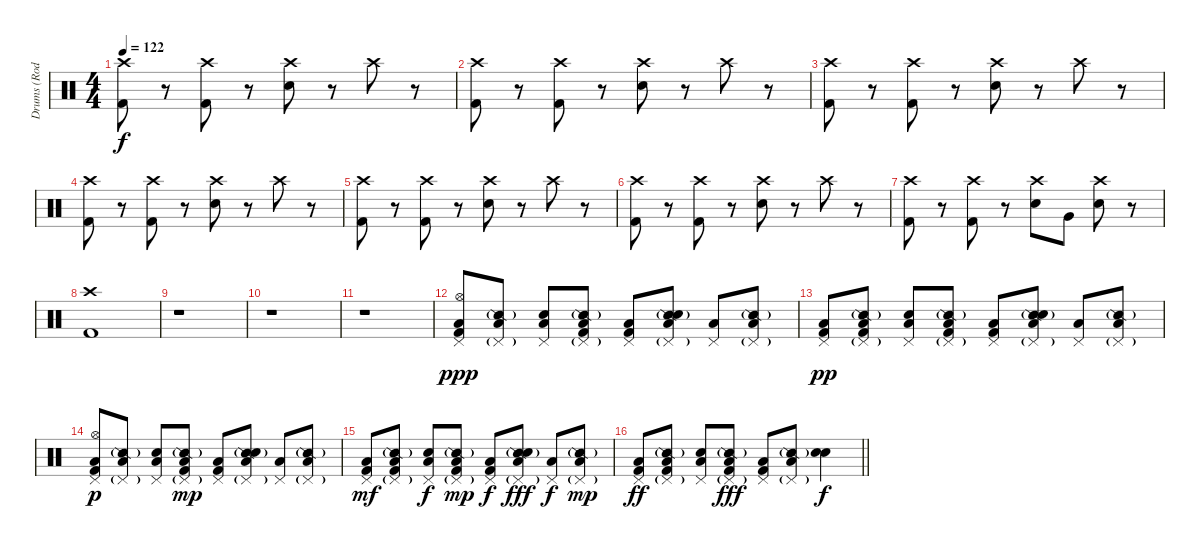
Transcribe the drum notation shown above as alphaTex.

\track ("Drums (Rod Bourdon)" "Drums (Rod") {instrument percussion}
\staff {score}
\articulation defaults
\ts (4 4)
\tempo 122
\clef neutral
\ks c
("Crash high (hit)" "Kick (hit) 2").8{dy f} r.8 ("Crash high (hit)" "Kick (hit) 2").8 r.8 ("Crash high (hit)" "Electric Snare (hit)").8 r.8 "Crash high (hit)".8 r.8 |
("Crash high (hit)" "Kick (hit) 2").8 r.8 ("Crash high (hit)" "Kick (hit) 2").8 r.8 ("Crash high (hit)" "Electric Snare (hit)").8 r.8 "Crash high (hit)".8 r.8 |
("Crash high (hit)" "Kick (hit) 2").8 r.8 ("Crash high (hit)" "Kick (hit) 2").8 r.8 ("Crash high (hit)" "Electric Snare (hit)").8 r.8 "Crash high (hit)".8 r.8 |
("Crash high (hit)" "Kick (hit) 2").8 r.8 ("Crash high (hit)" "Kick (hit) 2").8 r.8 ("Crash high (hit)" "Electric Snare (hit)").8 r.8 "Crash high (hit)".8 r.8 |
("Crash high (hit)" "Kick (hit) 2").8 r.8 ("Crash high (hit)" "Kick (hit) 2").8 r.8 ("Crash high (hit)" "Electric Snare (hit)").8 r.8 "Crash high (hit)".8 r.8 |
("Crash high (hit)" "Kick (hit) 2").8 r.8 ("Crash high (hit)" "Kick (hit) 2").8 r.8 ("Crash high (hit)" "Electric Snare (hit)").8 r.8 "Crash high (hit)".8 r.8 |
("Crash high (hit)" "Kick (hit) 2").8 r.8 ("Crash high (hit)" "Kick (hit) 2").8 r.8 ("Crash high (hit)" "Electric Snare (hit)").8 "Very Low Tom (hit)".8 ("Crash high (hit)" "Electric Snare (hit)").8 r.8 |
("Crash high (hit)" "Kick (hit) 2").1 |
r.1 |
r.1 |
r.1 |
("Pedal Hi-Hat (hit)" "Hi-Hat (open)" "Low Tom (hit)" "Kick (hit) 2").8{dy ppp} ("Snare (side stick) 2"{g} "Pedal Hi-Hat (hit)"{g} "Low Tom (hit)").8 ("Pedal Hi-Hat (hit)" "Low Tom (hit)" "Electric Snare (hit)").8 ("Snare (side stick) 2"{g} "Pedal Hi-Hat (hit)"{g} "Low Tom (hit)" "Kick (hit) 2").8 ("Pedal Hi-Hat (hit)" "Low Tom (hit)" "Kick (hit) 2").8 ("Snare (side stick) 2"{g} "Pedal Hi-Hat (hit)"{g} "Low Tom (hit)" "Electric Snare (hit)").8 ("Pedal Hi-Hat (hit)" "Low Tom (hit)").8 ("Snare (side stick) 2"{g} "Pedal Hi-Hat (hit)"{g} "Low Tom (hit)").8 |
("Pedal Hi-Hat (hit)" "Low Tom (hit)" "Kick (hit) 2").8{dy pp} ("Snare (side stick) 2"{g} "Pedal Hi-Hat (hit)"{g} "Low Tom (hit)" "Kick (hit) 2").8 ("Pedal Hi-Hat (hit)" "Low Tom (hit)" "Electric Snare (hit)").8 ("Snare (side stick) 2"{g} "Pedal Hi-Hat (hit)"{g} "Low Tom (hit)" "Kick (hit) 2").8 ("Pedal Hi-Hat (hit)" "Low Tom (hit)" "Kick (hit) 2").8 ("Snare (side stick) 2"{g} "Pedal Hi-Hat (hit)"{g} "Low Tom (hit)" "Electric Snare (hit)").8 ("Pedal Hi-Hat (hit)" "Low Tom (hit)").8 ("Snare (side stick) 2"{g} "Pedal Hi-Hat (hit)"{g} "Low Tom (hit)").8 |
("Pedal Hi-Hat (hit)" "Hi-Hat (open)" "Low Tom (hit)" "Kick (hit) 2").8{dy p} ("Snare (side stick) 2"{g} "Pedal Hi-Hat (hit)"{g} "Low Tom (hit)").8 ("Pedal Hi-Hat (hit)" "Low Tom (hit)" "Electric Snare (hit)").8 ("Snare (side stick) 2"{g} "Pedal Hi-Hat (hit)"{g} "Low Tom (hit)" "Kick (hit) 2").8{dy mp} ("Pedal Hi-Hat (hit)" "Low Tom (hit)" "Kick (hit) 2").8 ("Snare (side stick) 2"{g} "Pedal Hi-Hat (hit)"{g} "Low Tom (hit)" "Electric Snare (hit)").8 ("Pedal Hi-Hat (hit)" "Low Tom (hit)").8 ("Snare (side stick) 2"{g} "Pedal Hi-Hat (hit)"{g} "Low Tom (hit)").8 |
("Pedal Hi-Hat (hit)" "Low Tom (hit)" "Kick (hit) 2").8{dy mf} ("Snare (side stick) 2"{g} "Pedal Hi-Hat (hit)"{g} "Low Tom (hit)" "Kick (hit) 2").8 ("Pedal Hi-Hat (hit)" "Low Tom (hit)" "Electric Snare (hit)").8{dy f} ("Snare (side stick) 2"{g} "Pedal Hi-Hat (hit)"{g} "Low Tom (hit)" "Kick (hit) 2").8{dy mp} ("Pedal Hi-Hat (hit)" "Low Tom (hit)" "Kick (hit) 2").8{dy f} ("Snare (side stick) 2"{g} "Pedal Hi-Hat (hit)"{g} "Low Tom (hit)" "Electric Snare (hit)").8{dy fff} ("Pedal Hi-Hat (hit)" "Low Tom (hit)").8{dy f} ("Snare (side stick) 2"{g} "Pedal Hi-Hat (hit)"{g} "Low Tom (hit)").8{dy mp} |
\barLineRight lightlight
("Pedal Hi-Hat (hit)" "Low Tom (hit)" "Kick (hit) 2").8{dy ff} ("Snare (side stick) 2"{g} "Pedal Hi-Hat (hit)"{g} "Low Tom (hit)" "Kick (hit) 2").8 ("Pedal Hi-Hat (hit)" "Low Tom (hit)" "Electric Snare (hit)").8 ("Snare (side stick) 2"{g} "Pedal Hi-Hat (hit)"{g} "Low Tom (hit)" "Kick (hit) 2").8{dy fff} ("Pedal Hi-Hat (hit)" "Low Tom (hit)" "Kick (hit) 2").8 ("Snare (side stick) 2"{g} "Pedal Hi-Hat (hit)"{g} "Low Tom (hit)").8 ("Electric Snare (hit)" "Electric Snare (hit)").4{dy f}
